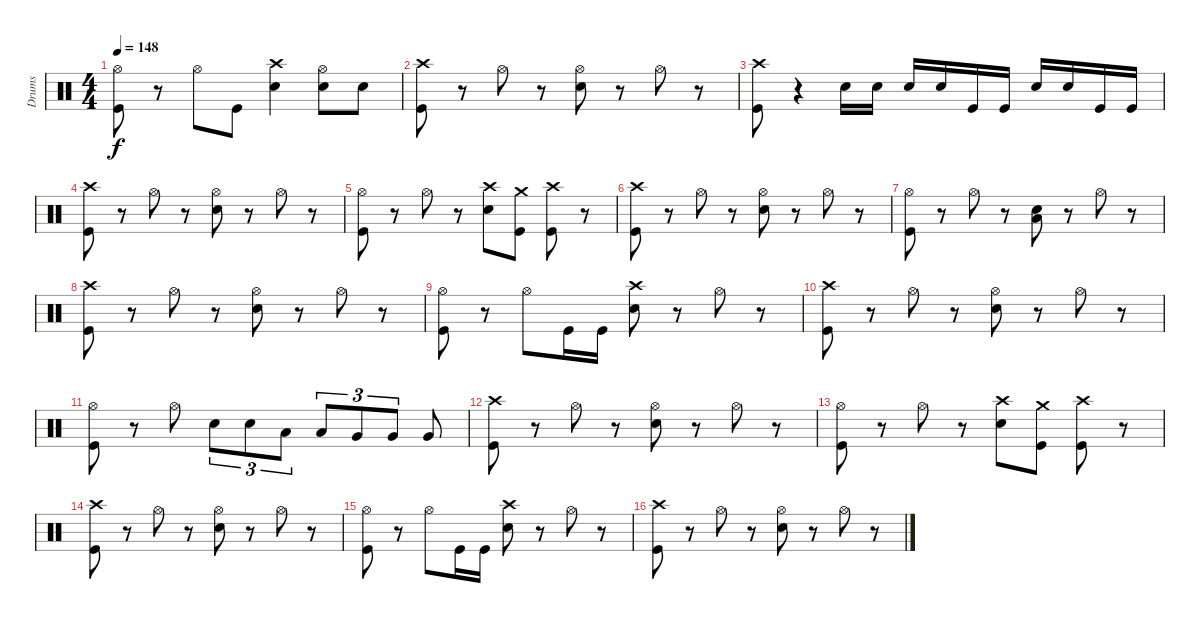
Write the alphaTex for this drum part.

\track ("Drums" "Drums") {instrument percussion}
\staff {score}
\articulation defaults
\ts (4 4)
\tempo 148
\clef neutral
\ks c
("Hi-Hat (open)" "Kick (hit)").8{dy f} r.8 "Hi-Hat (open)".8 "Kick (hit)".8 ("Snare (hit) 2" "Crash high (hit)").4 ("Snare (hit) 2" "Hi-Hat (open)").8 "Snare (hit) 2".8 |
("Crash high (hit)" "Kick (hit)").8 r.8 "Hi-Hat (open)".8 r.8 ("Hi-Hat (open)" "Snare (hit) 2").8 r.8 "Hi-Hat (open)".8 r.8 |
("Kick (hit)" "Crash high (hit)").8 r.4 "Snare (hit) 2".16 "Snare (hit) 2".16 "Snare (hit) 2".16 "Snare (hit) 2".16 "Kick (hit)".16 "Kick (hit)".16 "Snare (hit) 2".16 "Snare (hit) 2".16 "Kick (hit)".16 "Kick (hit)".16 |
("Crash high (hit)" "Kick (hit)").8 r.8 "Hi-Hat (open)".8 r.8 ("Hi-Hat (open)" "Snare (hit) 2").8 r.8 "Hi-Hat (open)".8 r.8 |
("Hi-Hat (open)" "Kick (hit)").8 r.8 "Hi-Hat (open)".8 r.8 ("Crash high (hit)" "Snare (hit) 2").8 ("Kick (hit)" "Crash medium (hit)").8 ("Crash high (hit)" "Kick (hit)").8 r.8 |
("Crash high (hit)" "Kick (hit)").8 r.8 "Hi-Hat (open)".8 r.8 ("Hi-Hat (open)" "Snare (hit) 2").8 r.8 "Hi-Hat (open)".8 r.8 |
("Hi-Hat (open)" "Kick (hit)").8 r.8 "Hi-Hat (open)".8 r.8 ("Low Tom (hit)" "Snare (hit) 2").8 r.8 "Hi-Hat (open)".8 r.8 |
("Crash high (hit)" "Kick (hit)").8 r.8 "Hi-Hat (open)".8 r.8 ("Hi-Hat (open)" "Snare (hit) 2").8 r.8 "Hi-Hat (open)".8 r.8 |
("Kick (hit)" "Hi-Hat (open)").8 r.8 "Hi-Hat (open)".8 "Kick (hit)".16 "Kick (hit)".16 ("Snare (hit) 2" "Crash high (hit)").8 r.8 "Hi-Hat (open)".8 r.8 |
("Kick (hit)" "Crash high (hit)").8 r.8 "Hi-Hat (open)".8 r.8 ("Snare (hit) 2" "Hi-Hat (open)").8 r.8 "Hi-Hat (open)".8 r.8 |
("Kick (hit)" "Hi-Hat (open)").8 r.8 "Hi-Hat (open)".8 "Snare (hit) 2".8{tu (3 2)} "Snare (hit) 2".8{tu (3 2)} "Low Tom (hit)".8{tu (3 2)} "Low Tom (hit)".8{tu (3 2)} "Very Low Tom (hit)".8{tu (3 2)} "Very Low Tom (hit)".8{tu (3 2)} "Very Low Tom (hit)".8 |
("Crash high (hit)" "Kick (hit)").8 r.8 "Hi-Hat (open)".8 r.8 ("Hi-Hat (open)" "Snare (hit) 2").8 r.8 "Hi-Hat (open)".8 r.8 |
("Hi-Hat (open)" "Kick (hit)").8 r.8 "Hi-Hat (open)".8 r.8 ("Crash high (hit)" "Snare (hit) 2").8 ("Kick (hit)" "Crash medium (hit)").8 ("Crash high (hit)" "Kick (hit)").8 r.8 |
("Crash high (hit)" "Kick (hit)").8 r.8 "Hi-Hat (open)".8 r.8 ("Hi-Hat (open)" "Snare (hit) 2").8 r.8 "Hi-Hat (open)".8 r.8 |
("Hi-Hat (open)" "Kick (hit)").8 r.8 "Hi-Hat (open)".8 "Kick (hit)".16 "Kick (hit)".16 ("Snare (hit) 2" "Crash high (hit)").8 r.8 "Hi-Hat (open)".8 r.8 |
("Crash high (hit)" "Kick (hit)").8 r.8 "Hi-Hat (open)".8 r.8 ("Hi-Hat (open)" "Snare (hit) 2").8 r.8 "Hi-Hat (open)".8 r.8
